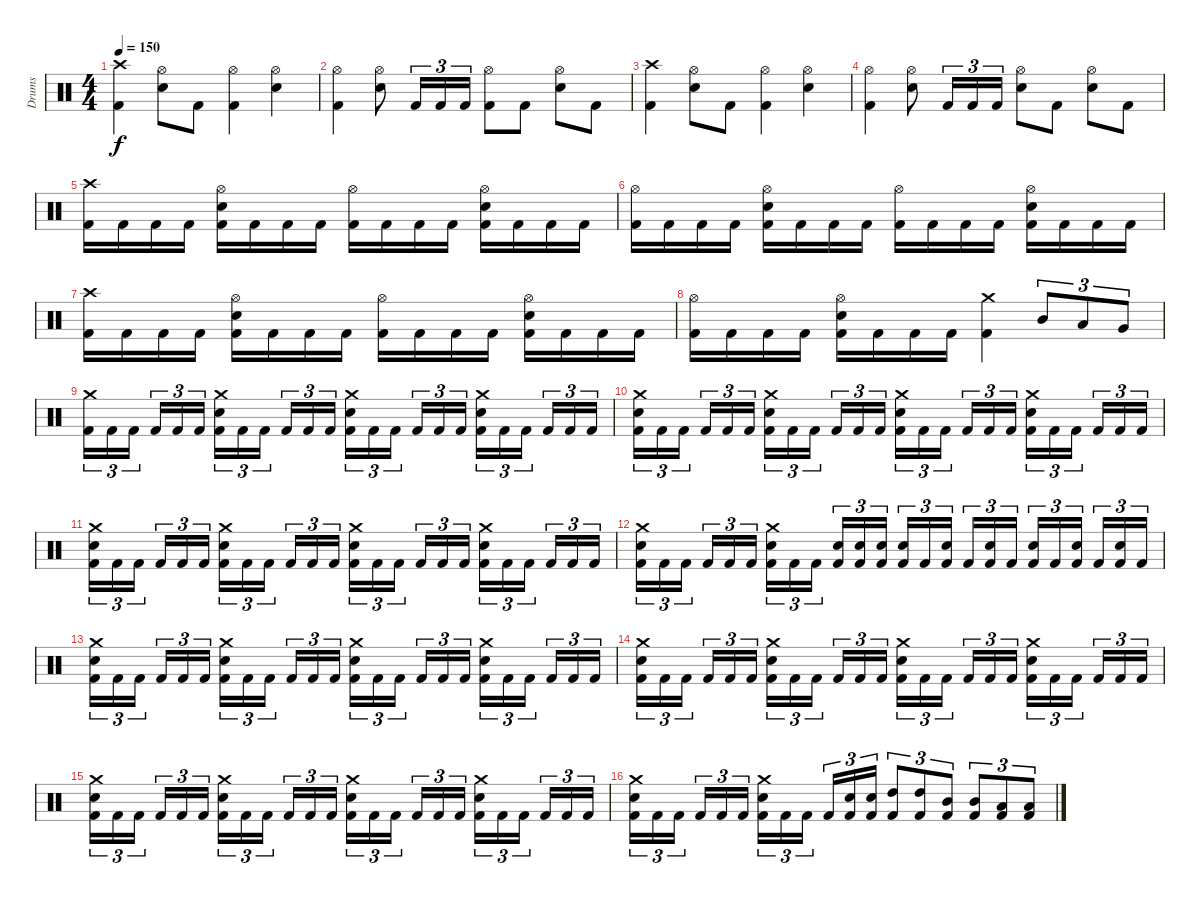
\track ("Drums" "Drums") {instrument percussion}
\staff {score}
\articulation defaults
\ts (4 4)
\tempo 150
\clef neutral
\ks c
("Kick (hit) 2" "Crash high (hit)").4{dy f} ("Electric Snare (hit)" "Hi-Hat (open)").8 "Kick (hit) 2".8 ("Kick (hit) 2" "Hi-Hat (open)").4 ("Electric Snare (hit)" "Hi-Hat (open)").4 |
("Kick (hit) 2" "Hi-Hat (open)").4 ("Electric Snare (hit)" "Hi-Hat (open)").8 "Kick (hit) 2".16{tu (3 2)} "Kick (hit) 2".16{tu (3 2)} "Kick (hit) 2".16{tu (3 2)} ("Kick (hit) 2" "Hi-Hat (open)").8 "Kick (hit) 2".8 ("Electric Snare (hit)" "Hi-Hat (open)").8 "Kick (hit) 2".8 |
("Kick (hit) 2" "Crash high (hit)").4 ("Electric Snare (hit)" "Hi-Hat (open)").8 "Kick (hit) 2".8 ("Kick (hit) 2" "Hi-Hat (open)").4 ("Electric Snare (hit)" "Hi-Hat (open)").4 |
("Kick (hit) 2" "Hi-Hat (open)").4 ("Electric Snare (hit)" "Hi-Hat (open)").8 "Kick (hit) 2".16{tu (3 2)} "Kick (hit) 2".16{tu (3 2)} "Kick (hit) 2".16{tu (3 2)} ("Electric Snare (hit)" "Hi-Hat (open)").8 "Kick (hit) 2".8 ("Electric Snare (hit)" "Hi-Hat (open)").8 "Kick (hit) 2".8 |
("Kick (hit) 2" "Crash high (hit)").16 "Kick (hit) 2".16 "Kick (hit) 2".16 "Kick (hit) 2".16 ("Kick (hit) 2" "Electric Snare (hit)" "Hi-Hat (open)").16 "Kick (hit) 2".16 "Kick (hit) 2".16 "Kick (hit) 2".16 ("Kick (hit) 2" "Hi-Hat (open)").16 "Kick (hit) 2".16 "Kick (hit) 2".16 "Kick (hit) 2".16 ("Kick (hit) 2" "Electric Snare (hit)" "Hi-Hat (open)").16 "Kick (hit) 2".16 "Kick (hit) 2".16 "Kick (hit) 2".16 |
("Kick (hit) 2" "Hi-Hat (open)").16 "Kick (hit) 2".16 "Kick (hit) 2".16 "Kick (hit) 2".16 ("Kick (hit) 2" "Electric Snare (hit)" "Hi-Hat (open)").16 "Kick (hit) 2".16 "Kick (hit) 2".16 "Kick (hit) 2".16 ("Kick (hit) 2" "Hi-Hat (open)").16 "Kick (hit) 2".16 "Kick (hit) 2".16 "Kick (hit) 2".16 ("Kick (hit) 2" "Electric Snare (hit)" "Hi-Hat (open)").16 "Kick (hit) 2".16 "Kick (hit) 2".16 "Kick (hit) 2".16 |
("Kick (hit) 2" "Crash high (hit)").16 "Kick (hit) 2".16 "Kick (hit) 2".16 "Kick (hit) 2".16 ("Kick (hit) 2" "Electric Snare (hit)" "Hi-Hat (open)").16 "Kick (hit) 2".16 "Kick (hit) 2".16 "Kick (hit) 2".16 ("Kick (hit) 2" "Hi-Hat (open)").16 "Kick (hit) 2".16 "Kick (hit) 2".16 "Kick (hit) 2".16 ("Kick (hit) 2" "Electric Snare (hit)" "Hi-Hat (open)").16 "Kick (hit) 2".16 "Kick (hit) 2".16 "Kick (hit) 2".16 |
("Kick (hit) 2" "Hi-Hat (open)").16 "Kick (hit) 2".16 "Kick (hit) 2".16 "Kick (hit) 2".16 ("Kick (hit) 2" "Electric Snare (hit)" "Hi-Hat (open)").16 "Kick (hit) 2".16 "Kick (hit) 2".16 "Kick (hit) 2".16 ("Kick (hit) 2" "Crash medium (hit)").4 "Mid Tom (hit)".8{tu (3 2)} "Low Tom (hit)".8{tu (3 2)} "Very Low Tom (hit)".8{tu (3 2)} |
("Kick (hit) 2" "Crash medium (hit)").16{tu (3 2)} "Kick (hit) 2".16{tu (3 2)} "Kick (hit) 2".16{tu (3 2)} "Kick (hit) 2".16{tu (3 2)} "Kick (hit) 2".16{tu (3 2)} "Kick (hit) 2".16{tu (3 2)} ("Kick (hit) 2" "Electric Snare (hit)" "Crash medium (hit)").16{tu (3 2)} "Kick (hit) 2".16{tu (3 2)} "Kick (hit) 2".16{tu (3 2)} "Kick (hit) 2".16{tu (3 2)} "Kick (hit) 2".16{tu (3 2)} "Kick (hit) 2".16{tu (3 2)} ("Kick (hit) 2" "Electric Snare (hit)" "Crash medium (hit)").16{tu (3 2)} "Kick (hit) 2".16{tu (3 2)} "Kick (hit) 2".16{tu (3 2)} "Kick (hit) 2".16{tu (3 2)} "Kick (hit) 2".16{tu (3 2)} "Kick (hit) 2".16{tu (3 2)} ("Kick (hit) 2" "Electric Snare (hit)" "Crash medium (hit)").16{tu (3 2)} "Kick (hit) 2".16{tu (3 2)} "Kick (hit) 2".16{tu (3 2)} "Kick (hit) 2".16{tu (3 2)} "Kick (hit) 2".16{tu (3 2)} "Kick (hit) 2".16{tu (3 2)} |
("Kick (hit) 2" "Electric Snare (hit)" "Crash medium (hit)").16{tu (3 2)} "Kick (hit) 2".16{tu (3 2)} "Kick (hit) 2".16{tu (3 2)} "Kick (hit) 2".16{tu (3 2)} "Kick (hit) 2".16{tu (3 2)} "Kick (hit) 2".16{tu (3 2)} ("Kick (hit) 2" "Electric Snare (hit)" "Crash medium (hit)").16{tu (3 2)} "Kick (hit) 2".16{tu (3 2)} "Kick (hit) 2".16{tu (3 2)} "Kick (hit) 2".16{tu (3 2)} "Kick (hit) 2".16{tu (3 2)} "Kick (hit) 2".16{tu (3 2)} ("Kick (hit) 2" "Electric Snare (hit)" "Crash medium (hit)").16{tu (3 2)} "Kick (hit) 2".16{tu (3 2)} "Kick (hit) 2".16{tu (3 2)} "Kick (hit) 2".16{tu (3 2)} "Kick (hit) 2".16{tu (3 2)} "Kick (hit) 2".16{tu (3 2)} ("Kick (hit) 2" "Electric Snare (hit)" "Crash medium (hit)").16{tu (3 2)} "Kick (hit) 2".16{tu (3 2)} "Kick (hit) 2".16{tu (3 2)} "Kick (hit) 2".16{tu (3 2)} "Kick (hit) 2".16{tu (3 2)} "Kick (hit) 2".16{tu (3 2)} |
("Kick (hit) 2" "Electric Snare (hit)" "Crash medium (hit)").16{tu (3 2)} "Kick (hit) 2".16{tu (3 2)} "Kick (hit) 2".16{tu (3 2)} "Kick (hit) 2".16{tu (3 2)} "Kick (hit) 2".16{tu (3 2)} "Kick (hit) 2".16{tu (3 2)} ("Kick (hit) 2" "Electric Snare (hit)" "Crash medium (hit)").16{tu (3 2)} "Kick (hit) 2".16{tu (3 2)} "Kick (hit) 2".16{tu (3 2)} "Kick (hit) 2".16{tu (3 2)} "Kick (hit) 2".16{tu (3 2)} "Kick (hit) 2".16{tu (3 2)} ("Kick (hit) 2" "Electric Snare (hit)" "Crash medium (hit)").16{tu (3 2)} "Kick (hit) 2".16{tu (3 2)} "Kick (hit) 2".16{tu (3 2)} "Kick (hit) 2".16{tu (3 2)} "Kick (hit) 2".16{tu (3 2)} "Kick (hit) 2".16{tu (3 2)} ("Kick (hit) 2" "Electric Snare (hit)" "Crash medium (hit)").16{tu (3 2)} "Kick (hit) 2".16{tu (3 2)} "Kick (hit) 2".16{tu (3 2)} "Kick (hit) 2".16{tu (3 2)} "Kick (hit) 2".16{tu (3 2)} "Kick (hit) 2".16{tu (3 2)} |
("Kick (hit) 2" "Electric Snare (hit)" "Crash medium (hit)").16{tu (3 2)} "Kick (hit) 2".16{tu (3 2)} "Kick (hit) 2".16{tu (3 2)} "Kick (hit) 2".16{tu (3 2)} "Kick (hit) 2".16{tu (3 2)} "Kick (hit) 2".16{tu (3 2)} ("Kick (hit) 2" "Electric Snare (hit)" "Crash medium (hit)").16{tu (3 2)} "Kick (hit) 2".16{tu (3 2)} "Kick (hit) 2".16{tu (3 2)} ("Kick (hit) 2" "Electric Snare (hit)").16{tu (3 2)} ("Kick (hit) 2" "Electric Snare (hit)").16{tu (3 2)} ("Kick (hit) 2" "Electric Snare (hit)").16{tu (3 2)} ("Kick (hit) 2" "Electric Snare (hit)").16{tu (3 2)} "Kick (hit) 2".16{tu (3 2)} ("Kick (hit) 2" "Electric Snare (hit)").16{tu (3 2)} "Kick (hit) 2".16{tu (3 2)} ("Kick (hit) 2" "Electric Snare (hit)").16{tu (3 2)} "Kick (hit) 2".16{tu (3 2)} ("Kick (hit) 2" "Electric Snare (hit)").16{tu (3 2)} "Kick (hit) 2".16{tu (3 2)} ("Kick (hit) 2" "Electric Snare (hit)").16{tu (3 2)} "Kick (hit) 2".16{tu (3 2)} ("Kick (hit) 2" "Electric Snare (hit)").16{tu (3 2)} "Kick (hit) 2".16{tu (3 2)} |
("Kick (hit) 2" "Electric Snare (hit)" "Crash medium (hit)").16{tu (3 2)} "Kick (hit) 2".16{tu (3 2)} "Kick (hit) 2".16{tu (3 2)} "Kick (hit) 2".16{tu (3 2)} "Kick (hit) 2".16{tu (3 2)} "Kick (hit) 2".16{tu (3 2)} ("Kick (hit) 2" "Electric Snare (hit)" "Crash medium (hit)").16{tu (3 2)} "Kick (hit) 2".16{tu (3 2)} "Kick (hit) 2".16{tu (3 2)} "Kick (hit) 2".16{tu (3 2)} "Kick (hit) 2".16{tu (3 2)} "Kick (hit) 2".16{tu (3 2)} ("Kick (hit) 2" "Electric Snare (hit)" "Crash medium (hit)").16{tu (3 2)} "Kick (hit) 2".16{tu (3 2)} "Kick (hit) 2".16{tu (3 2)} "Kick (hit) 2".16{tu (3 2)} "Kick (hit) 2".16{tu (3 2)} "Kick (hit) 2".16{tu (3 2)} ("Kick (hit) 2" "Electric Snare (hit)" "Crash medium (hit)").16{tu (3 2)} "Kick (hit) 2".16{tu (3 2)} "Kick (hit) 2".16{tu (3 2)} "Kick (hit) 2".16{tu (3 2)} "Kick (hit) 2".16{tu (3 2)} "Kick (hit) 2".16{tu (3 2)} |
("Kick (hit) 2" "Electric Snare (hit)" "Crash medium (hit)").16{tu (3 2)} "Kick (hit) 2".16{tu (3 2)} "Kick (hit) 2".16{tu (3 2)} "Kick (hit) 2".16{tu (3 2)} "Kick (hit) 2".16{tu (3 2)} "Kick (hit) 2".16{tu (3 2)} ("Kick (hit) 2" "Electric Snare (hit)" "Crash medium (hit)").16{tu (3 2)} "Kick (hit) 2".16{tu (3 2)} "Kick (hit) 2".16{tu (3 2)} "Kick (hit) 2".16{tu (3 2)} "Kick (hit) 2".16{tu (3 2)} "Kick (hit) 2".16{tu (3 2)} ("Kick (hit) 2" "Electric Snare (hit)" "Crash medium (hit)").16{tu (3 2)} "Kick (hit) 2".16{tu (3 2)} "Kick (hit) 2".16{tu (3 2)} "Kick (hit) 2".16{tu (3 2)} "Kick (hit) 2".16{tu (3 2)} "Kick (hit) 2".16{tu (3 2)} ("Kick (hit) 2" "Electric Snare (hit)" "Crash medium (hit)").16{tu (3 2)} "Kick (hit) 2".16{tu (3 2)} "Kick (hit) 2".16{tu (3 2)} "Kick (hit) 2".16{tu (3 2)} "Kick (hit) 2".16{tu (3 2)} "Kick (hit) 2".16{tu (3 2)} |
("Kick (hit) 2" "Electric Snare (hit)" "Crash medium (hit)").16{tu (3 2)} "Kick (hit) 2".16{tu (3 2)} "Kick (hit) 2".16{tu (3 2)} "Kick (hit) 2".16{tu (3 2)} "Kick (hit) 2".16{tu (3 2)} "Kick (hit) 2".16{tu (3 2)} ("Kick (hit) 2" "Electric Snare (hit)" "Crash medium (hit)").16{tu (3 2)} "Kick (hit) 2".16{tu (3 2)} "Kick (hit) 2".16{tu (3 2)} "Kick (hit) 2".16{tu (3 2)} "Kick (hit) 2".16{tu (3 2)} "Kick (hit) 2".16{tu (3 2)} ("Kick (hit) 2" "Electric Snare (hit)" "Crash medium (hit)").16{tu (3 2)} "Kick (hit) 2".16{tu (3 2)} "Kick (hit) 2".16{tu (3 2)} "Kick (hit) 2".16{tu (3 2)} "Kick (hit) 2".16{tu (3 2)} "Kick (hit) 2".16{tu (3 2)} ("Kick (hit) 2" "Electric Snare (hit)" "Crash medium (hit)").16{tu (3 2)} "Kick (hit) 2".16{tu (3 2)} "Kick (hit) 2".16{tu (3 2)} "Kick (hit) 2".16{tu (3 2)} "Kick (hit) 2".16{tu (3 2)} "Kick (hit) 2".16{tu (3 2)} |
("Kick (hit) 2" "Electric Snare (hit)" "Crash medium (hit)").16{tu (3 2)} "Kick (hit) 2".16{tu (3 2)} "Kick (hit) 2".16{tu (3 2)} "Kick (hit) 2".16{tu (3 2)} "Kick (hit) 2".16{tu (3 2)} "Kick (hit) 2".16{tu (3 2)} ("Kick (hit) 2" "Electric Snare (hit)" "Crash medium (hit)").16{tu (3 2)} "Kick (hit) 2".16{tu (3 2)} "Kick (hit) 2".16{tu (3 2)} "Kick (hit) 2".16{tu (3 2)} ("Kick (hit) 2" "Electric Snare (hit)").16{tu (3 2)} ("Kick (hit) 2" "Electric Snare (hit)").16{tu (3 2)} ("Kick (hit) 2" "High Tom (hit)").8{tu (3 2)} ("Kick (hit) 2" "High Tom (hit)").8{tu (3 2)} ("Kick (hit) 2" "Mid Tom (hit)").8{tu (3 2)} ("Kick (hit) 2" "Mid Tom (hit)").8{tu (3 2)} ("Kick (hit) 2" "Low Tom (hit)").8{tu (3 2)} ("Kick (hit) 2" "Low Tom (hit)").8{tu (3 2)}
